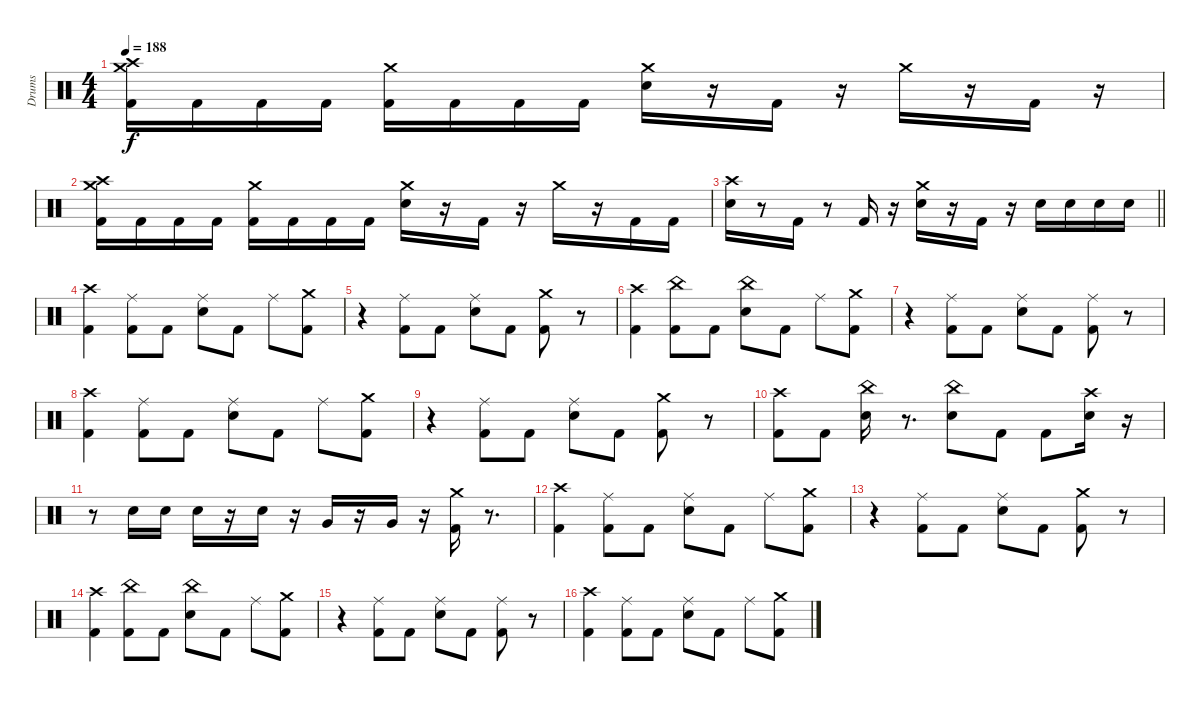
\track ("Drums" "Drums") {instrument percussion}
\staff {score}
\articulation defaults
\ts (4 4)
\tempo 188
\clef neutral
\ks c
("Kick (hit) 2" "Crash high (hit)" "Crash medium (hit)").16{dy f} "Kick (hit) 2".16 "Kick (hit) 2".16 "Kick (hit) 2".16 ("Kick (hit) 2" "Crash medium (hit)").16 "Kick (hit) 2".16 "Kick (hit) 2".16 "Kick (hit) 2".16 ("Snare (hit) 2" "Crash medium (hit)").16 r.16 "Kick (hit) 2".16 r.16 "Crash medium (hit)".16 r.16 "Kick (hit) 2".16 r.16 |
("Kick (hit) 2" "Crash high (hit)" "Crash medium (hit)").16 "Kick (hit) 2".16 "Kick (hit) 2".16 "Kick (hit) 2".16 ("Kick (hit) 2" "Crash medium (hit)").16 "Kick (hit) 2".16 "Kick (hit) 2".16 "Kick (hit) 2".16 ("Snare (hit) 2" "Crash medium (hit)").16 r.16 "Kick (hit) 2".16 r.16 "Crash medium (hit)".16 r.16 "Kick (hit) 2".16 "Kick (hit) 2".16 |
\barLineRight lightlight
("Snare (hit) 2" "Crash high (hit)").16 r.8 "Kick (hit) 2".16 r.8 "Kick (hit) 2".16 r.16 ("Snare (hit) 2" "Crash medium (hit)").16 r.16 "Kick (hit) 2".16 r.16 "Snare (hit) 2".16 "Snare (hit) 2".16 "Snare (hit) 2".16 "Snare (hit) 2".16 |
\section ("" " ")
("Kick (hit) 2" "Crash high (hit)").4 ("Kick (hit) 2" "Ride (middle)").8 "Kick (hit) 2".8 ("Snare (hit) 2" "Ride (middle)").8 "Kick (hit) 2".8 "Ride (middle)".8 ("Kick (hit) 2" "Crash medium (hit)").8 |
r.4 ("Kick (hit) 2" "Ride (middle)").8 "Kick (hit) 2".8 ("Snare (hit) 2" "Ride (middle)").8 "Kick (hit) 2".8 ("Kick (hit) 2" "Crash medium (hit)").8 r.8 |
("Kick (hit) 2" "Crash high (hit)").4 ("Kick (hit) 2" "China (hit)").8 "Kick (hit) 2".8 ("Snare (hit) 2" "China (hit)").8 "Kick (hit) 2".8 "Ride (middle)".8 ("Kick (hit) 2" "Crash medium (hit)").8 |
r.4 ("Kick (hit) 2" "Ride (middle)").8 "Kick (hit) 2".8 ("Snare (hit) 2" "Ride (middle)").8 "Kick (hit) 2".8 ("Kick (hit) 2" "Ride (middle)").8 r.8 |
("Kick (hit) 2" "Crash high (hit)").4 ("Kick (hit) 2" "Ride (middle)").8 "Kick (hit) 2".8 ("Snare (hit) 2" "Ride (middle)").8 "Kick (hit) 2".8 "Ride (middle)".8 ("Kick (hit) 2" "Crash medium (hit)").8 |
r.4 ("Kick (hit) 2" "Ride (middle)").8 "Kick (hit) 2".8 ("Snare (hit) 2" "Ride (middle)").8 "Kick (hit) 2".8 ("Kick (hit) 2" "Crash medium (hit)").8 r.8 |
("Kick (hit) 2" "Crash high (hit)").8 "Kick (hit) 2".8 ("Snare (hit) 2" "China (hit)").16 r.8{d} ("Snare (hit) 2" "China (hit)").8 "Kick (hit) 2".8 "Kick (hit) 2".8 ("Snare (hit) 2" "Crash high (hit)").16 r.16 |
r.8 "Snare (hit) 2".16 "Snare (hit) 2".16 "Snare (hit) 2".16 r.16 "Snare (hit) 2".16 r.16 "Very Low Tom (hit)".16 r.16 "Very Low Tom (hit)".16 r.16 ("Kick (hit) 2" "Crash medium (hit)").16 r.8{d} |
("Kick (hit) 2" "Crash high (hit)").4 ("Kick (hit) 2" "Ride (middle)").8 "Kick (hit) 2".8 ("Snare (hit) 2" "Ride (middle)").8 "Kick (hit) 2".8 "Ride (middle)".8 ("Kick (hit) 2" "Crash medium (hit)").8 |
r.4 ("Kick (hit) 2" "Ride (middle)").8 "Kick (hit) 2".8 ("Snare (hit) 2" "Ride (middle)").8 "Kick (hit) 2".8 ("Kick (hit) 2" "Crash medium (hit)").8 r.8 |
("Kick (hit) 2" "Crash high (hit)").4 ("Kick (hit) 2" "China (hit)").8 "Kick (hit) 2".8 ("Snare (hit) 2" "China (hit)").8 "Kick (hit) 2".8 "Ride (middle)".8 ("Kick (hit) 2" "Crash medium (hit)").8 |
r.4 ("Kick (hit) 2" "Ride (middle)").8 "Kick (hit) 2".8 ("Snare (hit) 2" "Ride (middle)").8 "Kick (hit) 2".8 ("Kick (hit) 2" "Ride (middle)").8 r.8 |
("Kick (hit) 2" "Crash high (hit)").4 ("Kick (hit) 2" "Ride (middle)").8 "Kick (hit) 2".8 ("Snare (hit) 2" "Ride (middle)").8 "Kick (hit) 2".8 "Ride (middle)".8 ("Kick (hit) 2" "Crash medium (hit)").8
